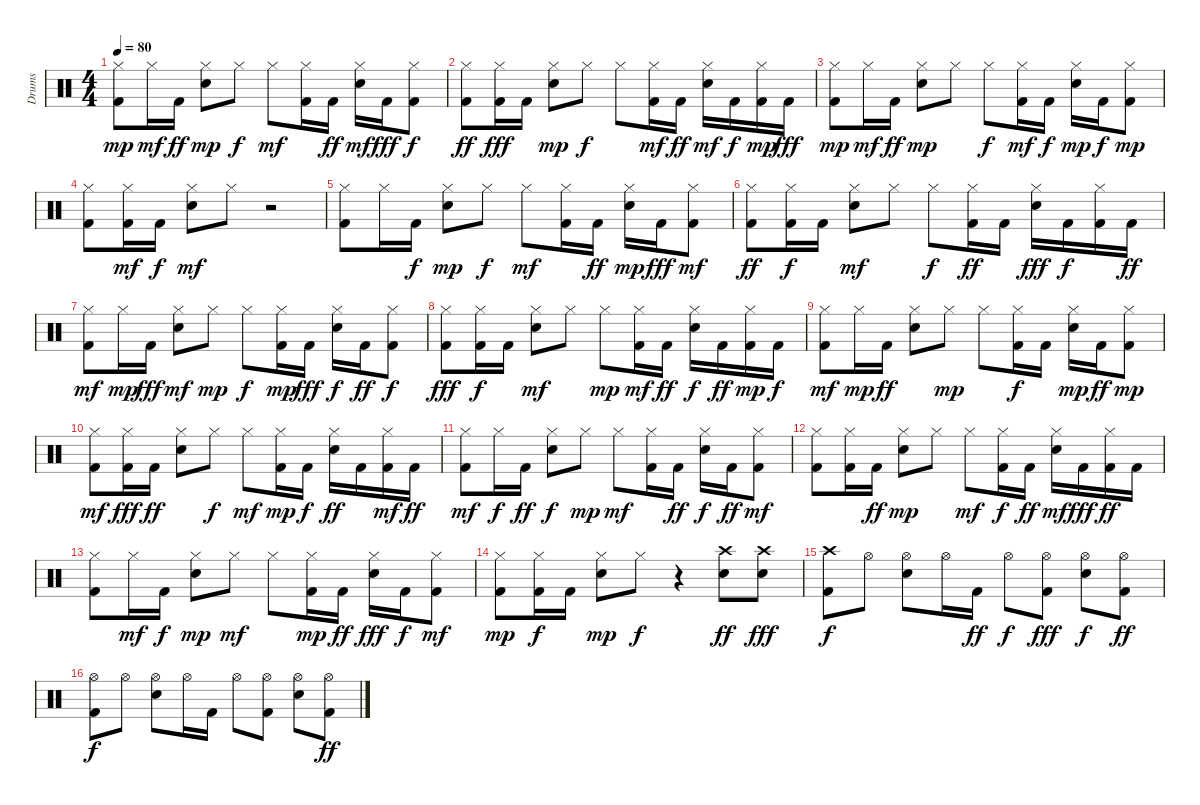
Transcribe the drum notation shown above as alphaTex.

\track ("Drums" "Drums") {instrument percussion}
\staff {score}
\articulation defaults
\ts (4 4)
\tempo 80
\clef neutral
\ks c
("Kick (hit) 2" "Hi-Hat (closed)").8{dy mp} "Hi-Hat (closed)".16{dy mf} "Kick (hit) 2".16{dy ff} ("Snare (hit) 2" "Hi-Hat (closed)").8{dy mp} "Hi-Hat (closed)".8{dy f} "Hi-Hat (closed)".8{dy mf} ("Kick (hit) 2" "Hi-Hat (closed)").16 "Kick (hit) 2".16{dy ff} ("Snare (hit) 2" "Hi-Hat (closed)").16{dy mf} "Kick (hit) 2".16{dy fff} ("Kick (hit) 2" "Hi-Hat (closed)").8{dy f} |
("Kick (hit) 2" "Hi-Hat (closed)").8{dy ff} ("Kick (hit) 2" "Hi-Hat (closed)").16{dy fff} "Kick (hit) 2".16 ("Snare (hit) 2" "Hi-Hat (closed)").8{dy mp} "Hi-Hat (closed)".8{dy f} "Hi-Hat (closed)".8 ("Kick (hit) 2" "Hi-Hat (closed)").16{dy mf} "Kick (hit) 2".16{dy ff} ("Snare (hit) 2" "Hi-Hat (closed)").16{dy mf} "Kick (hit) 2".16{dy f} ("Kick (hit) 2" "Hi-Hat (closed)").16{dy mp} "Kick (hit) 2".16{dy fff} |
("Kick (hit) 2" "Hi-Hat (closed)").8{dy mp} "Hi-Hat (closed)".16{dy mf} "Kick (hit) 2".16{dy ff} ("Snare (hit) 2" "Hi-Hat (closed)").8{dy mp} "Hi-Hat (closed)".8 "Hi-Hat (closed)".8{dy f} ("Kick (hit) 2" "Hi-Hat (closed)").16{dy mf} "Kick (hit) 2".16{dy f} ("Snare (hit) 2" "Hi-Hat (closed)").16{dy mp} "Kick (hit) 2".16{dy f} ("Kick (hit) 2" "Hi-Hat (closed)").8{dy mp} |
("Kick (hit) 2" "Hi-Hat (closed)").8 ("Kick (hit) 2" "Hi-Hat (closed)").16{dy mf} "Kick (hit) 2".16{dy f} ("Snare (hit) 2" "Hi-Hat (closed)").8{dy mf} "Hi-Hat (closed)".8 r.2 |
("Kick (hit) 2" "Hi-Hat (closed)").8 "Hi-Hat (closed)".16 "Kick (hit) 2".16{dy f} ("Snare (hit) 2" "Hi-Hat (closed)").8{dy mp} "Hi-Hat (closed)".8{dy f} "Hi-Hat (closed)".8{dy mf} ("Kick (hit) 2" "Hi-Hat (closed)").16 "Kick (hit) 2".16{dy ff} ("Snare (hit) 2" "Hi-Hat (closed)").16{dy mp} "Kick (hit) 2".16{dy fff} ("Kick (hit) 2" "Hi-Hat (closed)").8{dy mf} |
("Kick (hit) 2" "Hi-Hat (closed)").8{dy ff} ("Kick (hit) 2" "Hi-Hat (closed)").16{dy f} "Kick (hit) 2".16 ("Snare (hit) 2" "Hi-Hat (closed)").8{dy mf} "Hi-Hat (closed)".8 "Hi-Hat (closed)".8{dy f} ("Kick (hit) 2" "Hi-Hat (closed)").16{dy ff} "Kick (hit) 2".16 ("Snare (hit) 2" "Hi-Hat (closed)").16{dy fff} "Kick (hit) 2".16{dy f} ("Kick (hit) 2" "Hi-Hat (closed)").16 "Kick (hit) 2".16{dy ff} |
("Kick (hit) 2" "Hi-Hat (closed)").8{dy mf} "Hi-Hat (closed)".16{dy mp} "Kick (hit) 2".16{dy fff} ("Snare (hit) 2" "Hi-Hat (closed)").8{dy mf} "Hi-Hat (closed)".8{dy mp} "Hi-Hat (closed)".8{dy f} ("Kick (hit) 2" "Hi-Hat (closed)").16{dy mp} "Kick (hit) 2".16{dy fff} ("Snare (hit) 2" "Hi-Hat (closed)").16{dy f} "Kick (hit) 2".16{dy ff} ("Kick (hit) 2" "Hi-Hat (closed)").8{dy f} |
("Kick (hit) 2" "Hi-Hat (closed)").8{dy fff} ("Kick (hit) 2" "Hi-Hat (closed)").16{dy f} "Kick (hit) 2".16 ("Snare (hit) 2" "Hi-Hat (closed)").8{dy mf} "Hi-Hat (closed)".8 "Hi-Hat (closed)".8{dy mp} ("Kick (hit) 2" "Hi-Hat (closed)").16{dy mf} "Kick (hit) 2".16{dy ff} ("Snare (hit) 2" "Hi-Hat (closed)").16{dy f} "Kick (hit) 2".16{dy ff} ("Kick (hit) 2" "Hi-Hat (closed)").16{dy mp} "Kick (hit) 2".16{dy f} |
("Kick (hit) 2" "Hi-Hat (closed)").8{dy mf} "Hi-Hat (closed)".16{dy mp} "Kick (hit) 2".16{dy ff} ("Snare (hit) 2" "Hi-Hat (closed)").8 "Hi-Hat (closed)".8{dy mp} "Hi-Hat (closed)".8 ("Kick (hit) 2" "Hi-Hat (closed)").16{dy f} "Kick (hit) 2".16 ("Snare (hit) 2" "Hi-Hat (closed)").16{dy mp} "Kick (hit) 2".16{dy ff} ("Kick (hit) 2" "Hi-Hat (closed)").8{dy mp} |
("Kick (hit) 2" "Hi-Hat (closed)").8{dy mf} ("Kick (hit) 2" "Hi-Hat (closed)").16{dy fff} "Kick (hit) 2".16{dy ff} ("Snare (hit) 2" "Hi-Hat (closed)").8 "Hi-Hat (closed)".8{dy f} "Hi-Hat (closed)".8{dy mf} ("Kick (hit) 2" "Hi-Hat (closed)").16{dy mp} "Kick (hit) 2".16{dy f} ("Snare (hit) 2" "Hi-Hat (closed)").16{dy ff} "Kick (hit) 2".16 ("Kick (hit) 2" "Hi-Hat (closed)").16{dy mf} "Kick (hit) 2".16{dy ff} |
("Kick (hit) 2" "Hi-Hat (closed)").8{dy mf} "Hi-Hat (closed)".16{dy f} "Kick (hit) 2".16{dy ff} ("Snare (hit) 2" "Hi-Hat (closed)").8{dy f} "Hi-Hat (closed)".8{dy mp} "Hi-Hat (closed)".8{dy mf} ("Kick (hit) 2" "Hi-Hat (closed)").16 "Kick (hit) 2".16{dy ff} ("Snare (hit) 2" "Hi-Hat (closed)").16{dy f} "Kick (hit) 2".16{dy ff} ("Kick (hit) 2" "Hi-Hat (closed)").8{dy mf} |
("Kick (hit) 2" "Hi-Hat (closed)").8 ("Kick (hit) 2" "Hi-Hat (closed)").16 "Kick (hit) 2".16{dy ff} ("Snare (hit) 2" "Hi-Hat (closed)").8{dy mp} "Hi-Hat (closed)".8 "Hi-Hat (closed)".8{dy mf} ("Kick (hit) 2" "Hi-Hat (closed)").16{dy f} "Kick (hit) 2".16{dy ff} ("Snare (hit) 2" "Hi-Hat (closed)").16{dy mf} "Kick (hit) 2".16{dy fff} ("Kick (hit) 2" "Hi-Hat (closed)").16{dy ff} "Kick (hit) 2".16 |
("Kick (hit) 2" "Hi-Hat (closed)").8 "Hi-Hat (closed)".16{dy mf} "Kick (hit) 2".16{dy f} ("Snare (hit) 2" "Hi-Hat (closed)").8{dy mp} "Hi-Hat (closed)".8{dy mf} "Hi-Hat (closed)".8 ("Kick (hit) 2" "Hi-Hat (closed)").16{dy mp} "Kick (hit) 2".16{dy ff} ("Snare (hit) 2" "Hi-Hat (closed)").16{dy fff} "Kick (hit) 2".16{dy f} ("Kick (hit) 2" "Hi-Hat (closed)").8{dy mf} |
("Kick (hit) 2" "Hi-Hat (closed)").8{dy mp} ("Kick (hit) 2" "Hi-Hat (closed)").16{dy f} "Kick (hit) 2".16 ("Snare (hit) 2" "Hi-Hat (closed)").8{dy mp} "Hi-Hat (closed)".8{dy f} r.4 ("Snare (hit) 2" "Crash high (hit)").8{dy ff} ("Snare (hit) 2" "Crash high (hit)").8{dy fff} |
("Kick (hit) 2" "Crash high (hit)").8{dy f} "Hi-Hat (open)".8 ("Snare (hit) 2" "Hi-Hat (open)").8 "Hi-Hat (open)".16 "Kick (hit) 2".16{dy ff} "Hi-Hat (open)".8{dy f} ("Kick (hit) 2" "Hi-Hat (open)").8{dy fff} ("Snare (hit) 2" "Hi-Hat (open)").8{dy f} ("Kick (hit) 2" "Hi-Hat (open)").8{dy ff} |
("Kick (hit) 2" "Hi-Hat (open)").8{dy f} "Hi-Hat (open)".8 ("Snare (hit) 2" "Hi-Hat (open)").8 "Hi-Hat (open)".16 "Kick (hit) 2".16 "Hi-Hat (open)".8 ("Kick (hit) 2" "Hi-Hat (open)").8 ("Snare (hit) 2" "Hi-Hat (open)").8 ("Kick (hit) 2" "Hi-Hat (open)").8{dy ff}
